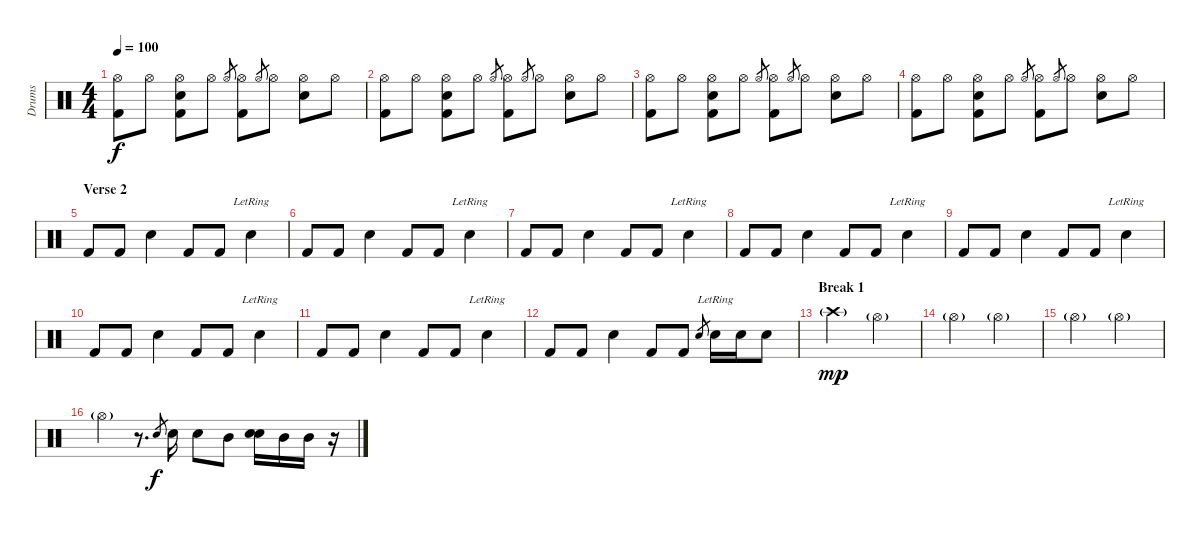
\track ("Drums" "Drums") {instrument percussion}
\staff {score}
\articulation defaults
\ts (4 4)
\tempo 100
\clef neutral
\ks c
("Hi-Hat (open)" "Kick (hit) 2").8{dy f} "Hi-Hat (open)".8 ("Electric Snare (hit)" "Hi-Hat (open)" "Kick (hit) 2").8 "Hi-Hat (open)".8 "Hi-Hat (open)".8{gr} ("Hi-Hat (open)" "Kick (hit) 2").8 "Hi-Hat (open)".8{gr} "Hi-Hat (open)".8 ("Electric Snare (hit)" "Hi-Hat (open)").8 "Hi-Hat (open)".8 |
("Hi-Hat (open)" "Kick (hit) 2").8 "Hi-Hat (open)".8 ("Electric Snare (hit)" "Hi-Hat (open)" "Kick (hit) 2").8 "Hi-Hat (open)".8 "Hi-Hat (open)".8{gr} ("Hi-Hat (open)" "Kick (hit) 2").8 "Hi-Hat (open)".8{gr} "Hi-Hat (open)".8 ("Electric Snare (hit)" "Hi-Hat (open)").8 "Hi-Hat (open)".8 |
("Hi-Hat (open)" "Kick (hit) 2").8 "Hi-Hat (open)".8 ("Electric Snare (hit)" "Hi-Hat (open)" "Kick (hit) 2").8 "Hi-Hat (open)".8 "Hi-Hat (open)".8{gr} ("Hi-Hat (open)" "Kick (hit) 2").8 "Hi-Hat (open)".8{gr} "Hi-Hat (open)".8 ("Electric Snare (hit)" "Hi-Hat (open)").8 "Hi-Hat (open)".8 |
("Hi-Hat (open)" "Kick (hit) 2").8 "Hi-Hat (open)".8 ("Electric Snare (hit)" "Hi-Hat (open)" "Kick (hit) 2").8 "Hi-Hat (open)".8 "Hi-Hat (open)".8{gr} ("Hi-Hat (open)" "Kick (hit) 2").8 "Hi-Hat (open)".8{gr} "Hi-Hat (open)".8 ("Electric Snare (hit)" "Hi-Hat (open)").8 "Hi-Hat (open)".8 |
\section ("" "Verse 2")
"Kick (hit) 2".8 "Kick (hit) 2".8 "Electric Snare (hit)".4 "Kick (hit) 2".8 "Kick (hit) 2".8 "Electric Snare (hit)"{lr}.4 |
"Kick (hit) 2".8 "Kick (hit) 2".8 "Electric Snare (hit)".4 "Kick (hit) 2".8 "Kick (hit) 2".8 "Electric Snare (hit)"{lr}.4 |
"Kick (hit) 2".8 "Kick (hit) 2".8 "Electric Snare (hit)".4 "Kick (hit) 2".8 "Kick (hit) 2".8 "Electric Snare (hit)"{lr}.4 |
"Kick (hit) 2".8 "Kick (hit) 2".8 "Electric Snare (hit)".4 "Kick (hit) 2".8 "Kick (hit) 2".8 "Electric Snare (hit)"{lr}.4 |
"Kick (hit) 2".8 "Kick (hit) 2".8 "Electric Snare (hit)".4 "Kick (hit) 2".8 "Kick (hit) 2".8 "Electric Snare (hit)"{lr}.4 |
"Kick (hit) 2".8 "Kick (hit) 2".8 "Electric Snare (hit)".4 "Kick (hit) 2".8 "Kick (hit) 2".8 "Electric Snare (hit)"{lr}.4 |
"Kick (hit) 2".8 "Kick (hit) 2".8 "Electric Snare (hit)".4 "Kick (hit) 2".8 "Kick (hit) 2".8 "Electric Snare (hit)"{lr}.4 |
"Kick (hit) 2".8 "Kick (hit) 2".8 "Electric Snare (hit)".4 "Kick (hit) 2".8 "Kick (hit) 2".8 "Electric Snare (hit)".8{gr} "Electric Snare (hit)"{lr}.16 "Electric Snare (hit)".16 "Electric Snare (hit)".8 |
\section ("" "Break 1")
"Crash high (hit)"{g}.2{dy mp} "Hi-Hat (open)"{g}.2 |
"Hi-Hat (open)"{g}.2 "Hi-Hat (open)"{g}.2 |
"Hi-Hat (open)"{g}.2 "Hi-Hat (open)"{g}.2 |
"Hi-Hat (open)"{g}.4 r.8{d} "Electric Snare (hit)".8{gr dy f} "Electric Snare (hit)".16 "Electric Snare (hit)".8 "Mid Tom (hit)".8 ("Electric Snare (hit)" "Electric Snare (hit)").16 "Mid Tom (hit)".16 "Mid Tom (hit)".16 r.16
